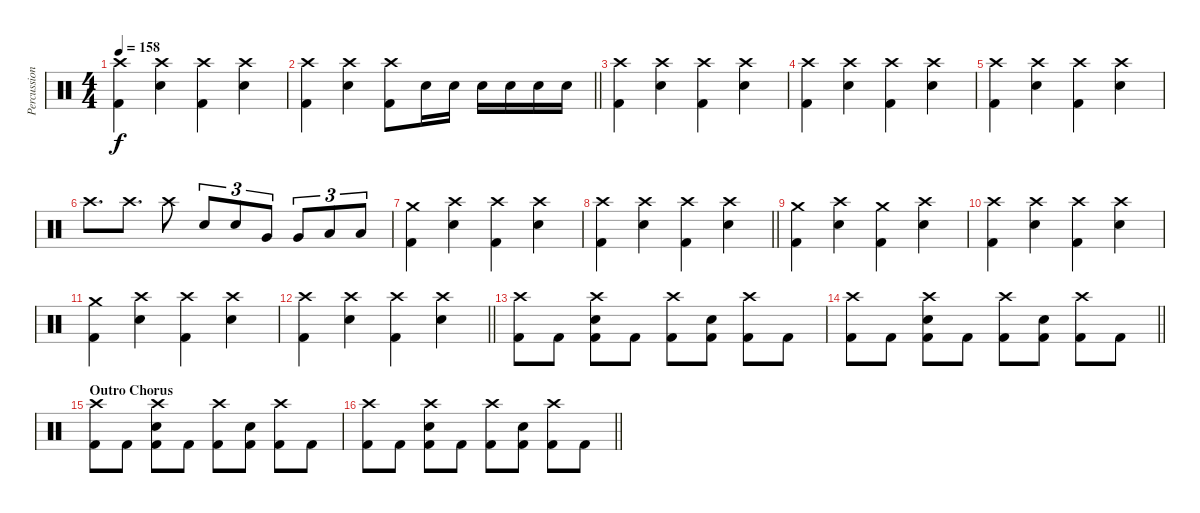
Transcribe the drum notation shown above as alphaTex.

\track ("Percussion" "Percussion") {instrument percussion}
\staff {score}
\articulation defaults
\ts (4 4)
\tempo 158
\clef neutral
\ks c
("Crash high (hit)" "Kick (hit) 2").4{dy f} ("Crash high (hit)" "Electric Snare (hit)").4 ("Crash high (hit)" "Kick (hit) 2").4 ("Crash high (hit)" "Electric Snare (hit)").4 |
\barLineRight lightlight
("Crash high (hit)" "Kick (hit) 2").4 ("Crash high (hit)" "Electric Snare (hit)").4 ("Crash high (hit)" "Kick (hit) 2").8 "Electric Snare (hit)".16 "Electric Snare (hit)".16 "Electric Snare (hit)".16 "Electric Snare (hit)".16 "Electric Snare (hit)".16 "Electric Snare (hit)".16 |
("Crash high (hit)" "Kick (hit) 2").4 ("Crash high (hit)" "Electric Snare (hit)").4 ("Crash high (hit)" "Kick (hit) 2").4 ("Crash high (hit)" "Electric Snare (hit)").4 |
("Crash high (hit)" "Kick (hit) 2").4 ("Crash high (hit)" "Electric Snare (hit)").4 ("Crash high (hit)" "Kick (hit) 2").4 ("Crash high (hit)" "Electric Snare (hit)").4 |
("Crash high (hit)" "Kick (hit) 2").4 ("Crash high (hit)" "Electric Snare (hit)").4 ("Crash high (hit)" "Kick (hit) 2").4 ("Crash high (hit)" "Electric Snare (hit)").4 |
"Crash high (hit)".8{d} "Crash high (hit)".8{d} "Crash high (hit)".8 "Electric Snare (hit)".8{tu (3 2)} "Electric Snare (hit)".8{tu (3 2)} "Very Low Tom (hit)".8{tu (3 2)} "Very Low Tom (hit)".8{tu (3 2)} "Low Tom (hit)".8{tu (3 2)} "Low Tom (hit)".8{tu (3 2)} |
("Crash medium (hit)" "Kick (hit) 2").4 ("Crash high (hit)" "Electric Snare (hit)").4 ("Crash high (hit)" "Kick (hit) 2").4 ("Crash high (hit)" "Electric Snare (hit)").4 |
\barLineRight lightlight
("Crash high (hit)" "Kick (hit) 2").4 ("Crash high (hit)" "Electric Snare (hit)").4 ("Crash high (hit)" "Kick (hit) 2").4 ("Crash high (hit)" "Electric Snare (hit)").4 |
("Crash medium (hit)" "Kick (hit) 2").4 ("Crash high (hit)" "Electric Snare (hit)").4 ("Crash medium (hit)" "Kick (hit) 2").4 ("Crash high (hit)" "Electric Snare (hit)").4 |
("Crash high (hit)" "Kick (hit) 2").4 ("Crash high (hit)" "Electric Snare (hit)").4 ("Crash high (hit)" "Kick (hit) 2").4 ("Crash high (hit)" "Electric Snare (hit)").4 |
("Crash medium (hit)" "Kick (hit) 2").4 ("Crash high (hit)" "Electric Snare (hit)").4 ("Crash high (hit)" "Kick (hit) 2").4 ("Crash high (hit)" "Electric Snare (hit)").4 |
\barLineRight lightlight
("Crash high (hit)" "Kick (hit) 2").4 ("Crash high (hit)" "Electric Snare (hit)").4 ("Crash high (hit)" "Kick (hit) 2").4 ("Crash high (hit)" "Electric Snare (hit)").4 |
("Crash high (hit)" "Kick (hit) 2").8 "Kick (hit) 2".8 ("Crash high (hit)" "Electric Snare (hit)" "Kick (hit) 2").8 "Kick (hit) 2".8 ("Crash high (hit)" "Kick (hit) 2").8 ("Electric Snare (hit)" "Kick (hit) 2").8 ("Crash high (hit)" "Kick (hit) 2").8 "Kick (hit) 2".8 |
\barLineRight lightlight
("Crash high (hit)" "Kick (hit) 2").8 "Kick (hit) 2".8 ("Crash high (hit)" "Electric Snare (hit)" "Kick (hit) 2").8 "Kick (hit) 2".8 ("Crash high (hit)" "Kick (hit) 2").8 ("Electric Snare (hit)" "Kick (hit) 2").8 ("Crash high (hit)" "Kick (hit) 2").8 "Kick (hit) 2".8 |
\section ("" "Outro Chorus")
("Crash high (hit)" "Kick (hit) 2").8 "Kick (hit) 2".8 ("Crash high (hit)" "Electric Snare (hit)" "Kick (hit) 2").8 "Kick (hit) 2".8 ("Crash high (hit)" "Kick (hit) 2").8 ("Electric Snare (hit)" "Kick (hit) 2").8 ("Crash high (hit)" "Kick (hit) 2").8 "Kick (hit) 2".8 |
\barLineRight lightlight
("Crash high (hit)" "Kick (hit) 2").8 "Kick (hit) 2".8 ("Crash high (hit)" "Electric Snare (hit)" "Kick (hit) 2").8 "Kick (hit) 2".8 ("Crash high (hit)" "Kick (hit) 2").8 ("Electric Snare (hit)" "Kick (hit) 2").8 ("Crash high (hit)" "Kick (hit) 2").8 "Kick (hit) 2".8
